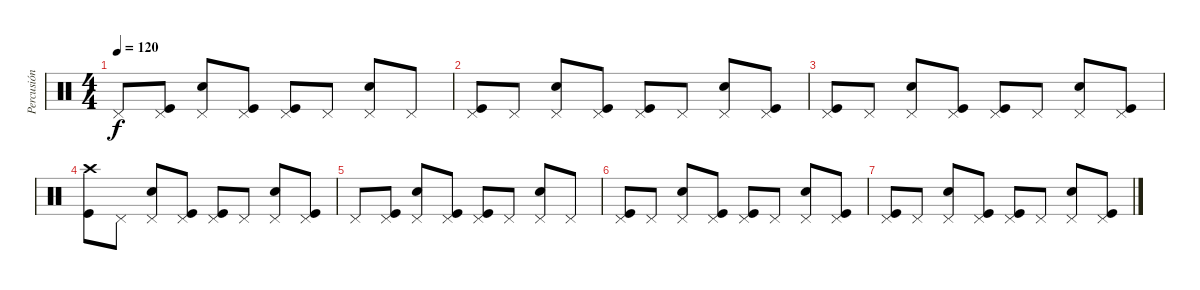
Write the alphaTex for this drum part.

\track ("Percusión" "Percusión") {instrument percussion}
\staff {score}
\articulation defaults
\ts (4 4)
\tempo 120
\clef neutral
\ks c "Pedal Hi-Hat (hit)".8{dy f}
("Pedal Hi-Hat (hit)" "Kick (hit)").8 ("Pedal Hi-Hat (hit)" "Electric Snare (hit)").8 ("Pedal Hi-Hat (hit)" "Kick (hit)").8 ("Pedal Hi-Hat (hit)" "Kick (hit)").8 "Pedal Hi-Hat (hit)".8 ("Pedal Hi-Hat (hit)" "Electric Snare (hit)").8 "Pedal Hi-Hat (hit)".8 |
("Pedal Hi-Hat (hit)" "Kick (hit)").8 "Pedal Hi-Hat (hit)".8 ("Pedal Hi-Hat (hit)" "Electric Snare (hit)").8 ("Pedal Hi-Hat (hit)" "Kick (hit)").8 ("Pedal Hi-Hat (hit)" "Kick (hit)").8 "Pedal Hi-Hat (hit)".8 ("Pedal Hi-Hat (hit)" "Electric Snare (hit)").8 ("Pedal Hi-Hat (hit)" "Kick (hit)").8 |
("Pedal Hi-Hat (hit)" "Kick (hit)").8 "Pedal Hi-Hat (hit)".8 ("Pedal Hi-Hat (hit)" "Electric Snare (hit)").8 ("Pedal Hi-Hat (hit)" "Kick (hit)").8 ("Pedal Hi-Hat (hit)" "Kick (hit)").8 "Pedal Hi-Hat (hit)".8 ("Pedal Hi-Hat (hit)" "Electric Snare (hit)").8 ("Pedal Hi-Hat (hit)" "Kick (hit)").8 |
("Crash high (hit)" "Kick (hit)").8 "Pedal Hi-Hat (hit)".8 ("Pedal Hi-Hat (hit)" "Electric Snare (hit)").8 ("Pedal Hi-Hat (hit)" "Kick (hit)").8 ("Pedal Hi-Hat (hit)" "Kick (hit)").8 "Pedal Hi-Hat (hit)".8 ("Pedal Hi-Hat (hit)" "Electric Snare (hit)").8 ("Pedal Hi-Hat (hit)" "Kick (hit)").8 |
"Pedal Hi-Hat (hit)".8 ("Pedal Hi-Hat (hit)" "Kick (hit)").8 ("Pedal Hi-Hat (hit)" "Electric Snare (hit)").8 ("Pedal Hi-Hat (hit)" "Kick (hit)").8 ("Pedal Hi-Hat (hit)" "Kick (hit)").8 "Pedal Hi-Hat (hit)".8 ("Pedal Hi-Hat (hit)" "Electric Snare (hit)").8 "Pedal Hi-Hat (hit)".8 |
("Pedal Hi-Hat (hit)" "Kick (hit)").8 "Pedal Hi-Hat (hit)".8 ("Pedal Hi-Hat (hit)" "Electric Snare (hit)").8 ("Pedal Hi-Hat (hit)" "Kick (hit)").8 ("Pedal Hi-Hat (hit)" "Kick (hit)").8 "Pedal Hi-Hat (hit)".8 ("Pedal Hi-Hat (hit)" "Electric Snare (hit)").8 ("Pedal Hi-Hat (hit)" "Kick (hit)").8 |
("Pedal Hi-Hat (hit)" "Kick (hit)").8 "Pedal Hi-Hat (hit)".8 ("Pedal Hi-Hat (hit)" "Electric Snare (hit)").8 ("Pedal Hi-Hat (hit)" "Kick (hit)").8 ("Pedal Hi-Hat (hit)" "Kick (hit)").8 "Pedal Hi-Hat (hit)".8 ("Pedal Hi-Hat (hit)" "Electric Snare (hit)").8 ("Pedal Hi-Hat (hit)" "Kick (hit)").8
